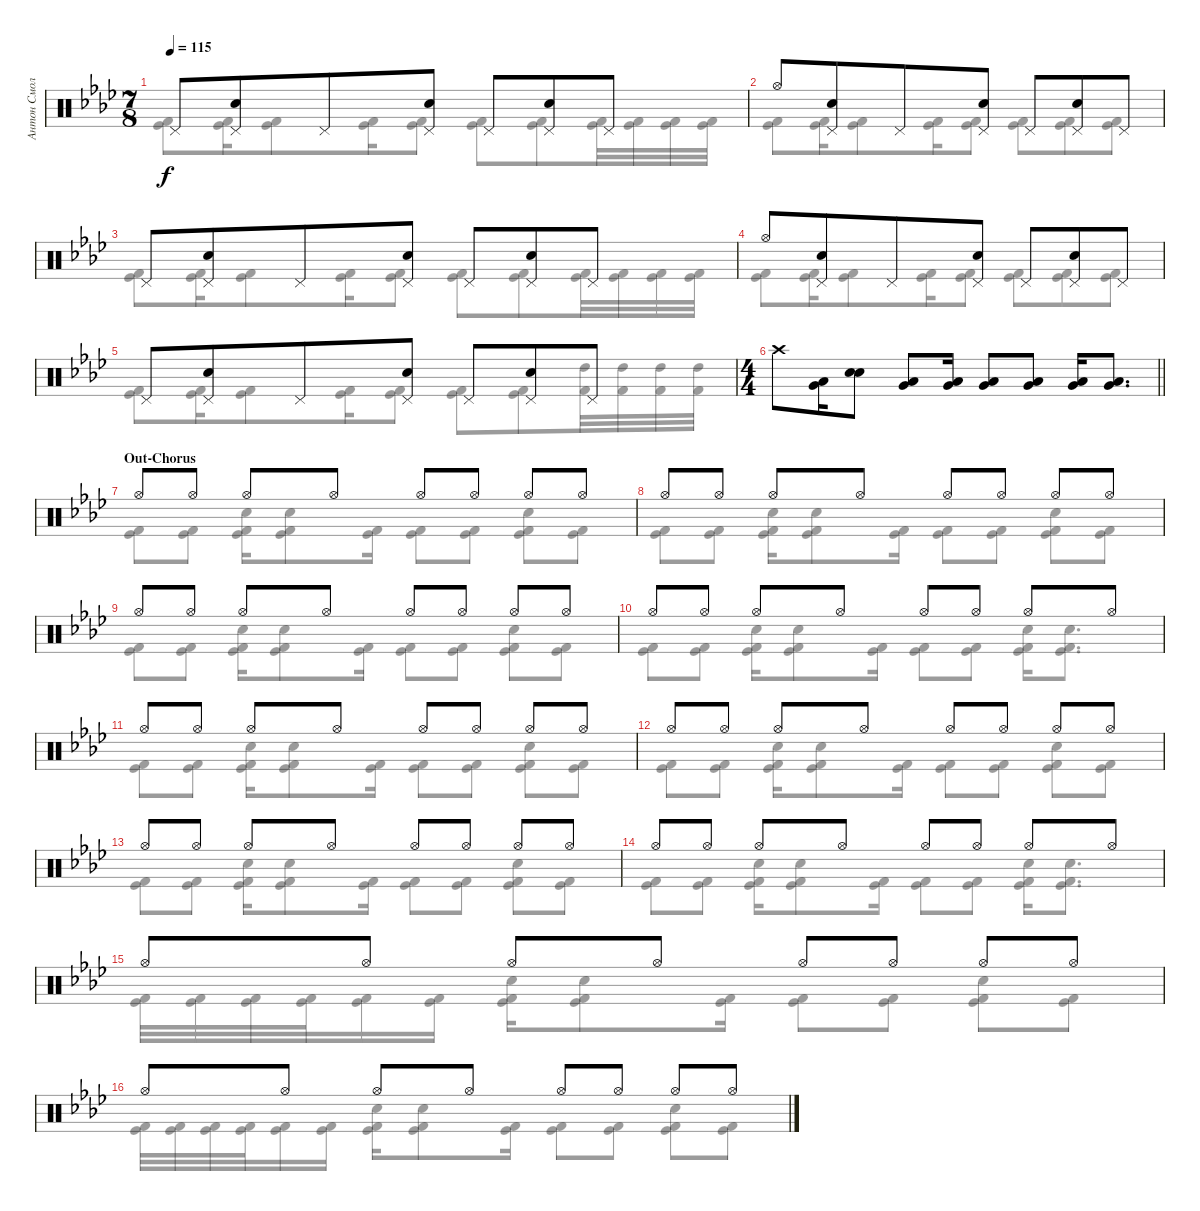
\track ("Антон Смольянин" "Антон Смол") {instrument percussion}
\staff {score}
\articulation defaults
\voice
\ts (7 8)
\tempo 115
\clef neutral
\ks ab "Pedal Hi-Hat (hit)".8{dy f}
("Electric Snare (hit)" "Pedal Hi-Hat (hit)").8 "Pedal Hi-Hat (hit)".8 ("Electric Snare (hit)" "Pedal Hi-Hat (hit)").8 "Pedal Hi-Hat (hit)".8 ("Electric Snare (hit)" "Pedal Hi-Hat (hit)").8 "Pedal Hi-Hat (hit)".8 |
"Hi-Hat (open)".8 ("Electric Snare (hit)" "Pedal Hi-Hat (hit)").8 "Pedal Hi-Hat (hit)".8 ("Electric Snare (hit)" "Pedal Hi-Hat (hit)").8 "Pedal Hi-Hat (hit)".8 ("Electric Snare (hit)" "Pedal Hi-Hat (hit)").8 "Pedal Hi-Hat (hit)".8 |
"Pedal Hi-Hat (hit)".8 ("Electric Snare (hit)" "Pedal Hi-Hat (hit)").8 "Pedal Hi-Hat (hit)".8 ("Electric Snare (hit)" "Pedal Hi-Hat (hit)").8 "Pedal Hi-Hat (hit)".8 ("Electric Snare (hit)" "Pedal Hi-Hat (hit)").8 "Pedal Hi-Hat (hit)".8 |
"Hi-Hat (open)".8 ("Electric Snare (hit)" "Pedal Hi-Hat (hit)").8 "Pedal Hi-Hat (hit)".8 ("Electric Snare (hit)" "Pedal Hi-Hat (hit)").8 "Pedal Hi-Hat (hit)".8 ("Electric Snare (hit)" "Pedal Hi-Hat (hit)").8 "Pedal Hi-Hat (hit)".8 |
"Pedal Hi-Hat (hit)".8 ("Electric Snare (hit)" "Pedal Hi-Hat (hit)").8 "Pedal Hi-Hat (hit)".8 ("Electric Snare (hit)" "Pedal Hi-Hat (hit)").8 "Pedal Hi-Hat (hit)".8 ("Electric Snare (hit)" "Pedal Hi-Hat (hit)").8 "Pedal Hi-Hat (hit)".8 |
\ts (4 4)
\barLineRight lightlight "Crash high (hit)".8
("Very Low Tom (hit)" "Low Tom (hit)").16 ("Snare (hit) 2" "Snare (hit) 2").8 ("Very Low Tom (hit)" "Low Tom (hit)").8 ("Very Low Tom (hit)" "Low Tom (hit)").16 ("Very Low Tom (hit)" "Low Tom (hit)").8 ("Very Low Tom (hit)" "Low Tom (hit)").8 ("Very Low Tom (hit)" "Low Tom (hit)").16 ("Very Low Tom (hit)" "Low Tom (hit)").8{d} |
\section ("" "Out-Chorus")
"Hi-Hat (open)".8 "Hi-Hat (open)".8 "Hi-Hat (open)".8 "Hi-Hat (open)".8 "Hi-Hat (open)".8 "Hi-Hat (open)".8 "Hi-Hat (open)".8 "Hi-Hat (open)".8 |
"Hi-Hat (open)".8 "Hi-Hat (open)".8 "Hi-Hat (open)".8 "Hi-Hat (open)".8 "Hi-Hat (open)".8 "Hi-Hat (open)".8 "Hi-Hat (open)".8 "Hi-Hat (open)".8 |
"Hi-Hat (open)".8 "Hi-Hat (open)".8 "Hi-Hat (open)".8 "Hi-Hat (open)".8 "Hi-Hat (open)".8 "Hi-Hat (open)".8 "Hi-Hat (open)".8 "Hi-Hat (open)".8 |
"Hi-Hat (open)".8 "Hi-Hat (open)".8 "Hi-Hat (open)".8 "Hi-Hat (open)".8 "Hi-Hat (open)".8 "Hi-Hat (open)".8 "Hi-Hat (open)".8 "Hi-Hat (open)".8 |
"Hi-Hat (open)".8 "Hi-Hat (open)".8 "Hi-Hat (open)".8 "Hi-Hat (open)".8 "Hi-Hat (open)".8 "Hi-Hat (open)".8 "Hi-Hat (open)".8 "Hi-Hat (open)".8 |
"Hi-Hat (open)".8 "Hi-Hat (open)".8 "Hi-Hat (open)".8 "Hi-Hat (open)".8 "Hi-Hat (open)".8 "Hi-Hat (open)".8 "Hi-Hat (open)".8 "Hi-Hat (open)".8 |
"Hi-Hat (open)".8 "Hi-Hat (open)".8 "Hi-Hat (open)".8 "Hi-Hat (open)".8 "Hi-Hat (open)".8 "Hi-Hat (open)".8 "Hi-Hat (open)".8 "Hi-Hat (open)".8 |
"Hi-Hat (open)".8 "Hi-Hat (open)".8 "Hi-Hat (open)".8 "Hi-Hat (open)".8 "Hi-Hat (open)".8 "Hi-Hat (open)".8 "Hi-Hat (open)".8 "Hi-Hat (open)".8 |
"Hi-Hat (open)".8 "Hi-Hat (open)".8 "Hi-Hat (open)".8 "Hi-Hat (open)".8 "Hi-Hat (open)".8 "Hi-Hat (open)".8 "Hi-Hat (open)".8 "Hi-Hat (open)".8 |
"Hi-Hat (open)".8 "Hi-Hat (open)".8 "Hi-Hat (open)".8 "Hi-Hat (open)".8 "Hi-Hat (open)".8 "Hi-Hat (open)".8 "Hi-Hat (open)".8 "Hi-Hat (open)".8
\voice
\clef neutral
\ottava regular
\simile none
\ks ab
("Kick (hit) 2" "Kick (hit)").8{dy f} ("Kick (hit) 2" "Kick (hit)").16 ("Kick (hit) 2" "Kick (hit)").8 ("Kick (hit) 2" "Kick (hit)").16 ("Kick (hit) 2" "Kick (hit)").8 ("Kick (hit) 2" "Kick (hit)").8 ("Kick (hit) 2" "Kick (hit)").8 ("Kick (hit) 2" "Kick (hit)").32 ("Kick (hit) 2" "Kick (hit)").32 ("Kick (hit) 2" "Kick (hit)").32 ("Kick (hit) 2" "Kick (hit)").32 |
("Kick (hit) 2" "Kick (hit)").8 ("Kick (hit) 2" "Kick (hit)").16 ("Kick (hit) 2" "Kick (hit)").8 ("Kick (hit) 2" "Kick (hit)").16 ("Kick (hit) 2" "Kick (hit)").8 ("Kick (hit) 2" "Kick (hit)").8 ("Kick (hit) 2" "Kick (hit)").8 ("Kick (hit) 2" "Kick (hit)").8 |
("Kick (hit) 2" "Kick (hit)").8 ("Kick (hit) 2" "Kick (hit)").16 ("Kick (hit) 2" "Kick (hit)").8 ("Kick (hit) 2" "Kick (hit)").16 ("Kick (hit) 2" "Kick (hit)").8 ("Kick (hit) 2" "Kick (hit)").8 ("Kick (hit) 2" "Kick (hit)").8 ("Kick (hit) 2" "Kick (hit)").32 ("Kick (hit) 2" "Kick (hit)").32 ("Kick (hit) 2" "Kick (hit)").32 ("Kick (hit) 2" "Kick (hit)").32 |
("Kick (hit) 2" "Kick (hit)").8 ("Kick (hit) 2" "Kick (hit)").16 ("Kick (hit) 2" "Kick (hit)").8 ("Kick (hit) 2" "Kick (hit)").16 ("Kick (hit) 2" "Kick (hit)").8 ("Kick (hit) 2" "Kick (hit)").8 ("Kick (hit) 2" "Kick (hit)").8 ("Kick (hit) 2" "Kick (hit)").8 |
("Kick (hit) 2" "Kick (hit)").8 ("Kick (hit) 2" "Kick (hit)").16 ("Kick (hit) 2" "Kick (hit)").8 ("Kick (hit) 2" "Kick (hit)").16 ("Kick (hit) 2" "Kick (hit)").8 ("Kick (hit) 2" "Kick (hit)").8 ("Kick (hit) 2" "Kick (hit)").8 ("Kick (hit) 2" "High Tom (hit)").32 ("Kick (hit) 2" "High Tom (hit)").32 ("Kick (hit) 2" "High Tom (hit)").32 ("Kick (hit) 2" "High Tom (hit)").32 |
\barLineRight lightlight
|
("Kick (hit) 2" "Kick (hit)").8 ("Kick (hit) 2" "Kick (hit)").8 ("Kick (hit) 2" "Kick (hit)" "Electric Snare (hit)").16 ("Kick (hit) 2" "Kick (hit)" "Electric Snare (hit)").8 ("Kick (hit) 2" "Kick (hit)").16 ("Kick (hit) 2" "Kick (hit)").8 ("Kick (hit) 2" "Kick (hit)").8 ("Kick (hit) 2" "Kick (hit)" "Electric Snare (hit)").8 ("Kick (hit) 2" "Kick (hit)").8 |
("Kick (hit) 2" "Kick (hit)").8 ("Kick (hit) 2" "Kick (hit)").8 ("Kick (hit) 2" "Kick (hit)" "Electric Snare (hit)").16 ("Kick (hit) 2" "Kick (hit)" "Electric Snare (hit)").8 ("Kick (hit) 2" "Kick (hit)").16 ("Kick (hit) 2" "Kick (hit)").8 ("Kick (hit) 2" "Kick (hit)").8 ("Kick (hit) 2" "Kick (hit)" "Electric Snare (hit)").8 ("Kick (hit) 2" "Kick (hit)").8 |
("Kick (hit) 2" "Kick (hit)").8 ("Kick (hit) 2" "Kick (hit)").8 ("Kick (hit) 2" "Kick (hit)" "Electric Snare (hit)").16 ("Kick (hit) 2" "Kick (hit)" "Electric Snare (hit)").8 ("Kick (hit) 2" "Kick (hit)").16 ("Kick (hit) 2" "Kick (hit)").8 ("Kick (hit) 2" "Kick (hit)").8 ("Kick (hit) 2" "Kick (hit)" "Electric Snare (hit)").8 ("Kick (hit) 2" "Kick (hit)").8 |
("Kick (hit) 2" "Kick (hit)").8 ("Kick (hit) 2" "Kick (hit)").8 ("Kick (hit) 2" "Kick (hit)" "Electric Snare (hit)").16 ("Kick (hit) 2" "Kick (hit)" "Electric Snare (hit)").8 ("Kick (hit) 2" "Kick (hit)").16 ("Kick (hit) 2" "Kick (hit)").8 ("Kick (hit) 2" "Kick (hit)").8 ("Kick (hit) 2" "Kick (hit)" "Electric Snare (hit)").16 ("Kick (hit) 2" "Kick (hit)" "Electric Snare (hit)").8{d} |
("Kick (hit) 2" "Kick (hit)").8 ("Kick (hit) 2" "Kick (hit)").8 ("Kick (hit) 2" "Kick (hit)" "Electric Snare (hit)").16 ("Kick (hit) 2" "Kick (hit)" "Electric Snare (hit)").8 ("Kick (hit) 2" "Kick (hit)").16 ("Kick (hit) 2" "Kick (hit)").8 ("Kick (hit) 2" "Kick (hit)").8 ("Kick (hit) 2" "Kick (hit)" "Electric Snare (hit)").8 ("Kick (hit) 2" "Kick (hit)").8 |
("Kick (hit) 2" "Kick (hit)").8 ("Kick (hit) 2" "Kick (hit)").8 ("Kick (hit) 2" "Kick (hit)" "Electric Snare (hit)").16 ("Kick (hit) 2" "Kick (hit)" "Electric Snare (hit)").8 ("Kick (hit) 2" "Kick (hit)").16 ("Kick (hit) 2" "Kick (hit)").8 ("Kick (hit) 2" "Kick (hit)").8 ("Kick (hit) 2" "Kick (hit)" "Electric Snare (hit)").8 ("Kick (hit) 2" "Kick (hit)").8 |
("Kick (hit) 2" "Kick (hit)").8 ("Kick (hit) 2" "Kick (hit)").8 ("Kick (hit) 2" "Kick (hit)" "Electric Snare (hit)").16 ("Kick (hit) 2" "Kick (hit)" "Electric Snare (hit)").8 ("Kick (hit) 2" "Kick (hit)").16 ("Kick (hit) 2" "Kick (hit)").8 ("Kick (hit) 2" "Kick (hit)").8 ("Kick (hit) 2" "Kick (hit)" "Electric Snare (hit)").8 ("Kick (hit) 2" "Kick (hit)").8 |
("Kick (hit) 2" "Kick (hit)").8 ("Kick (hit) 2" "Kick (hit)").8 ("Kick (hit) 2" "Kick (hit)" "Electric Snare (hit)").16 ("Kick (hit) 2" "Kick (hit)" "Electric Snare (hit)").8 ("Kick (hit) 2" "Kick (hit)").16 ("Kick (hit) 2" "Kick (hit)").8 ("Kick (hit) 2" "Kick (hit)").8 ("Kick (hit) 2" "Kick (hit)" "Electric Snare (hit)").16 ("Kick (hit) 2" "Kick (hit)" "Electric Snare (hit)").8{d} |
("Kick (hit) 2" "Kick (hit)").32 ("Kick (hit) 2" "Kick (hit)").32 ("Kick (hit) 2" "Kick (hit)").32 ("Kick (hit) 2" "Kick (hit)").32 ("Kick (hit) 2" "Kick (hit)").16 ("Kick (hit) 2" "Kick (hit)").16 ("Kick (hit) 2" "Kick (hit)" "Electric Snare (hit)").16 ("Kick (hit) 2" "Kick (hit)" "Electric Snare (hit)").8 ("Kick (hit) 2" "Kick (hit)").16 ("Kick (hit) 2" "Kick (hit)").8 ("Kick (hit) 2" "Kick (hit)").8 ("Kick (hit) 2" "Kick (hit)" "Electric Snare (hit)").8 ("Kick (hit) 2" "Kick (hit)").8 |
("Kick (hit) 2" "Kick (hit)").32 ("Kick (hit) 2" "Kick (hit)").32 ("Kick (hit) 2" "Kick (hit)").32 ("Kick (hit) 2" "Kick (hit)").32 ("Kick (hit) 2" "Kick (hit)").16 ("Kick (hit) 2" "Kick (hit)").16 ("Kick (hit) 2" "Kick (hit)" "Electric Snare (hit)").16 ("Kick (hit) 2" "Kick (hit)" "Electric Snare (hit)").8 ("Kick (hit) 2" "Kick (hit)").16 ("Kick (hit) 2" "Kick (hit)").8 ("Kick (hit) 2" "Kick (hit)").8 ("Kick (hit) 2" "Kick (hit)" "Electric Snare (hit)").8 ("Kick (hit) 2" "Kick (hit)").8
